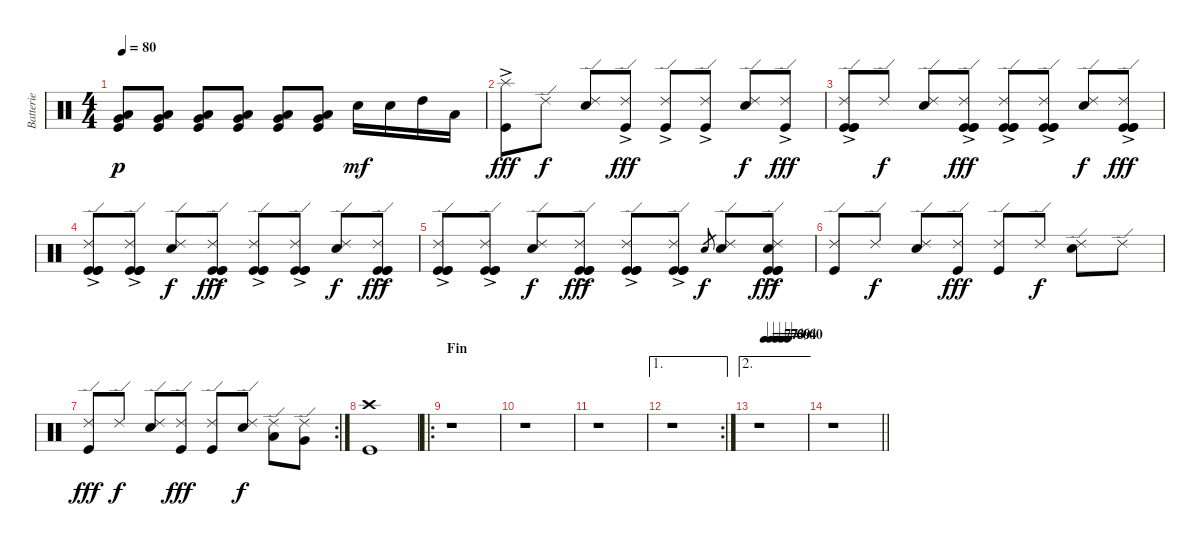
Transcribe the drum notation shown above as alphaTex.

\track ("Batterie" "Batterie") {instrument percussion}
\staff {score}
\articulation defaults
\ts (4 4)
\tempo 80
\clef neutral
\ks c
("Low Tom (hit)" "Very Low Tom (hit)" "Kick (hit)").8{dy p} ("Low Tom (hit)" "Very Low Tom (hit)" "Kick (hit)").8 ("Low Tom (hit)" "Very Low Tom (hit)" "Kick (hit)").8 ("Low Tom (hit)" "Very Low Tom (hit)" "Kick (hit)").8 ("Low Tom (hit)" "Very Low Tom (hit)" "Kick (hit)").8 ("Low Tom (hit)" "Very Low Tom (hit)" "Kick (hit)").8 "Snare (hit) 2".16{dy mf} "Snare (hit) 2".16 "High Tom (hit)".16 "Low Tom (hit)".16 |
("Splash (hit)" "Kick (hit)"{ac}).8{dy fff} "Ride (edge) 2".8{dy f} ("Ride (edge) 2" "Snare (hit) 2").8 ("Ride (edge) 2" "Kick (hit)"{ac}).8{dy fff} ("Ride (edge) 2" "Kick (hit)"{ac}).8 ("Ride (edge) 2" "Kick (hit)"{ac}).8 ("Ride (edge) 2" "Snare (hit) 2").8{dy f} ("Ride (edge) 2" "Kick (hit)"{ac}).8{dy fff} |
("Ride (edge) 2" "Kick (hit)"{ac} "Kick (hit)" "Kick (hit)"{ac}).8 "Ride (edge) 2".8{dy f} ("Ride (edge) 2" "Snare (hit) 2").8 ("Ride (edge) 2" "Kick (hit)"{ac} "Kick (hit)"{ac} "Kick (hit)"{ac}).8{dy fff} ("Ride (edge) 2" "Kick (hit)"{ac} "Kick (hit)"{ac} "Kick (hit)"{ac}).8 ("Ride (edge) 2" "Kick (hit)"{ac} "Kick (hit)"{ac} "Kick (hit)"{ac}).8 ("Ride (edge) 2" "Snare (hit) 2").8{dy f} ("Ride (edge) 2" "Kick (hit)"{ac} "Kick (hit)"{ac} "Kick (hit)"{ac}).8{dy fff} |
("Ride (edge) 2" "Kick (hit)"{ac} "Kick (hit)"{ac} "Kick (hit)"{ac}).8 ("Ride (edge) 2" "Kick (hit)"{ac} "Kick (hit)"{ac} "Kick (hit)"{ac}).8 ("Ride (edge) 2" "Snare (hit) 2").8{dy f} ("Ride (edge) 2" "Kick (hit)"{ac} "Kick (hit)"{ac} "Kick (hit)"{ac}).8{dy fff} ("Ride (edge) 2" "Kick (hit)"{ac} "Kick (hit)"{ac} "Kick (hit)"{ac}).8 ("Ride (edge) 2" "Kick (hit)"{ac} "Kick (hit)"{ac} "Kick (hit)"{ac}).8 ("Ride (edge) 2" "Snare (hit) 2").8{dy f} ("Ride (edge) 2" "Kick (hit)"{ac} "Kick (hit)"{ac} "Kick (hit)"{ac}).8{dy fff} |
("Ride (edge) 2" "Kick (hit)"{ac} "Kick (hit)"{ac} "Kick (hit)"{ac}).8 ("Ride (edge) 2" "Kick (hit)"{ac} "Kick (hit)"{ac} "Kick (hit)"{ac}).8 ("Ride (edge) 2" "Snare (hit) 2").8{dy f} ("Ride (edge) 2" "Kick (hit)"{ac} "Kick (hit)"{ac} "Kick (hit)"{ac}).8{dy fff} ("Ride (edge) 2" "Kick (hit)"{ac} "Kick (hit)"{ac} "Kick (hit)"{ac}).8 ("Ride (edge) 2" "Kick (hit)"{ac} "Kick (hit)"{ac} "Kick (hit)"{ac}).8 "Snare (hit) 2".8{gr dy f} ("Ride (edge) 2" "Snare (hit) 2").8 ("Ride (edge) 2" "Snare (hit) 2" "Kick (hit)"{ac} "Kick (hit)"{ac} "Kick (hit)"{ac}).8{dy fff} |
("Ride (edge) 2" "Kick (hit)").8 "Ride (edge) 2".8{dy f} ("Ride (edge) 2" "Snare (hit) 2").8 ("Ride (edge) 2" "Kick (hit)").8{dy fff} ("Ride (edge) 2" "Kick (hit)").8 "Ride (edge) 2".8{dy f} ("Ride (edge) 2" "Snare (hit) 2").8 "Ride (edge) 2".8 |
\rc 2
("Ride (edge) 2" "Kick (hit)").8{dy fff} "Ride (edge) 2".8{dy f} ("Ride (edge) 2" "Snare (hit) 2").8 ("Ride (edge) 2" "Kick (hit)").8{dy fff} ("Ride (edge) 2" "Kick (hit)").8 ("Ride (edge) 2" "Snare (hit) 2").8{dy f} ("Ride (edge) 2" "Low Tom (hit)").8 ("Ride (edge) 2" "Very Low Tom (hit)").8 |
("Crash high (hit)" "Kick (hit)").1 |
\ro
\section ("" "Fin")
r.1 |
r.1 |
r.1 |
\ae 1
\rc 2
r.1 |
\ae 2
\tempo (77 0.125)
\tempo (73 0.25)
\tempo (69 0.375)
\tempo (64 0.5)
\tempo (60 0.625)
r.1 |
\barLineRight lightlight
r.1
